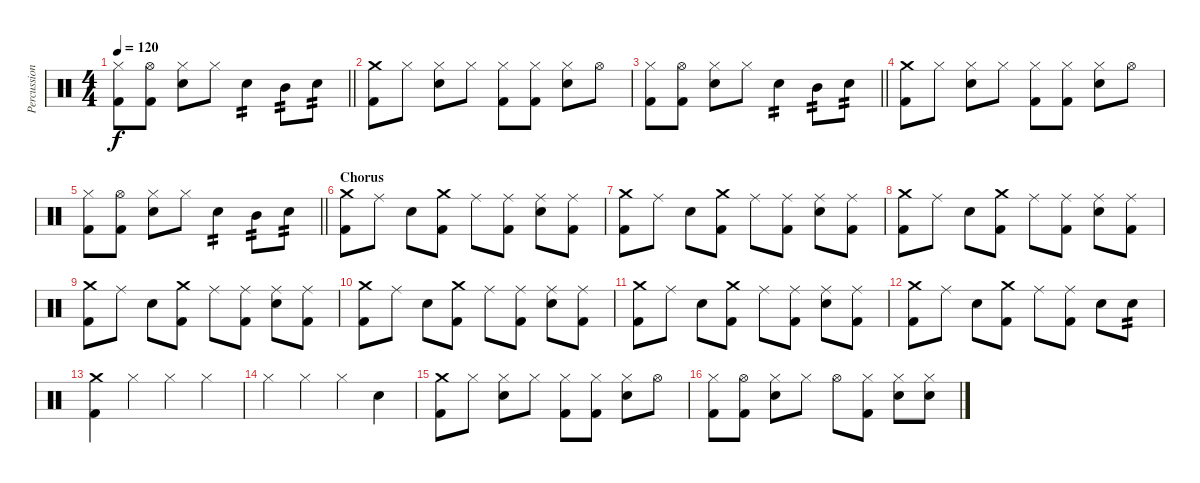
\track ("Percussion" "Percussion") {instrument percussion}
\staff {score}
\articulation defaults
\ts (4 4)
\tempo 120
\clef neutral
\barLineRight lightlight
\ks c
("Hi-Hat (closed)" "Kick (hit) 2").8{dy f} ("Hi-Hat (open)" "Kick (hit) 2").8 ("Hi-Hat (closed)" "Snare (hit) 2").8 "Hi-Hat (closed)".8 "Snare (hit) 2".4{tp 2} "Mid Tom (hit)".8{tp 2} "Snare (hit) 2".8{tp 2} |
("Crash medium (hit)" "Kick (hit) 2").8 "Hi-Hat (closed)".8 ("Hi-Hat (closed)" "Snare (hit) 2").8 "Hi-Hat (closed)".8 ("Hi-Hat (closed)" "Kick (hit) 2").8 ("Hi-Hat (closed)" "Kick (hit) 2").8 ("Hi-Hat (closed)" "Snare (hit) 2").8 "Hi-Hat (open)".8 |
\barLineRight lightlight
("Hi-Hat (closed)" "Kick (hit) 2").8 ("Hi-Hat (open)" "Kick (hit) 2").8 ("Hi-Hat (closed)" "Snare (hit) 2").8 "Hi-Hat (closed)".8 "Snare (hit) 2".4{tp 2} "Mid Tom (hit)".8{tp 2} "Snare (hit) 2".8{tp 2} |
("Crash medium (hit)" "Kick (hit) 2").8 "Hi-Hat (closed)".8 ("Hi-Hat (closed)" "Snare (hit) 2").8 "Hi-Hat (closed)".8 ("Hi-Hat (closed)" "Kick (hit) 2").8 ("Hi-Hat (closed)" "Kick (hit) 2").8 ("Hi-Hat (closed)" "Snare (hit) 2").8 "Hi-Hat (open)".8 |
\barLineRight lightlight
("Hi-Hat (closed)" "Kick (hit) 2").8 ("Hi-Hat (open)" "Kick (hit) 2").8 ("Hi-Hat (closed)" "Snare (hit) 2").8 "Hi-Hat (closed)".8 "Snare (hit) 2".4{tp 2} "Mid Tom (hit)".8{tp 2} "Snare (hit) 2".8{tp 2} |
\section ("" "Chorus")
("Crash medium (hit)" "Kick (hit) 2").8 "Ride (middle)".8 "Snare (hit) 2".8 ("Crash medium (hit)" "Kick (hit) 2").8 "Ride (middle)".8 ("Ride (middle)" "Kick (hit) 2").8 ("Ride (middle)" "Snare (hit) 2").8 ("Ride (middle)" "Kick (hit) 2").8 |
("Crash medium (hit)" "Kick (hit) 2").8 "Ride (middle)".8 "Snare (hit) 2".8 ("Crash medium (hit)" "Kick (hit) 2").8 "Ride (middle)".8 ("Ride (middle)" "Kick (hit) 2").8 ("Ride (middle)" "Snare (hit) 2").8 ("Ride (middle)" "Kick (hit) 2").8 |
("Crash medium (hit)" "Kick (hit) 2").8 "Ride (middle)".8 "Snare (hit) 2".8 ("Crash medium (hit)" "Kick (hit) 2").8 "Ride (middle)".8 ("Ride (middle)" "Kick (hit) 2").8 ("Ride (middle)" "Snare (hit) 2").8 ("Ride (middle)" "Kick (hit) 2").8 |
("Crash medium (hit)" "Kick (hit) 2").8 "Ride (middle)".8 "Snare (hit) 2".8 ("Crash medium (hit)" "Kick (hit) 2").8 "Ride (middle)".8 ("Ride (middle)" "Kick (hit) 2").8 ("Ride (middle)" "Snare (hit) 2").8 ("Ride (middle)" "Kick (hit) 2").8 |
("Crash medium (hit)" "Kick (hit) 2").8 "Ride (middle)".8 "Snare (hit) 2".8 ("Crash medium (hit)" "Kick (hit) 2").8 "Ride (middle)".8 ("Ride (middle)" "Kick (hit) 2").8 ("Ride (middle)" "Snare (hit) 2").8 ("Ride (middle)" "Kick (hit) 2").8 |
("Crash medium (hit)" "Kick (hit) 2").8 "Ride (middle)".8 "Snare (hit) 2".8 ("Crash medium (hit)" "Kick (hit) 2").8 "Ride (middle)".8 ("Ride (middle)" "Kick (hit) 2").8 ("Ride (middle)" "Snare (hit) 2").8 ("Ride (middle)" "Kick (hit) 2").8 |
("Crash medium (hit)" "Kick (hit) 2").8 "Ride (middle)".8 "Snare (hit) 2".8 ("Crash medium (hit)" "Kick (hit) 2").8 "Ride (middle)".8 ("Ride (middle)" "Kick (hit) 2").8 "Snare (hit) 2".8 "Snare (hit) 2".8{tp 2} |
("Crash medium (hit)" "Kick (hit) 2").4 "Hi-Hat (closed)".4 "Hi-Hat (closed)".4 "Hi-Hat (closed)".4 |
"Hi-Hat (closed)".4 "Hi-Hat (closed)".4 "Hi-Hat (closed)".4 "Snare (hit) 2".4 |
("Crash medium (hit)" "Kick (hit) 2").8 "Hi-Hat (closed)".8 ("Hi-Hat (closed)" "Snare (hit) 2").8 "Hi-Hat (closed)".8 ("Hi-Hat (closed)" "Kick (hit) 2").8 ("Hi-Hat (closed)" "Kick (hit) 2").8 ("Hi-Hat (closed)" "Snare (hit) 2").8 "Hi-Hat (open)".8 |
("Hi-Hat (closed)" "Kick (hit) 2").8 ("Hi-Hat (open)" "Kick (hit) 2").8 ("Hi-Hat (closed)" "Snare (hit) 2").8 "Hi-Hat (closed)".8 "Hi-Hat (open)".8 ("Hi-Hat (closed)" "Kick (hit) 2").8 ("Hi-Hat (closed)" "Snare (hit) 2").8 ("Hi-Hat (closed)" "Snare (hit) 2").8
